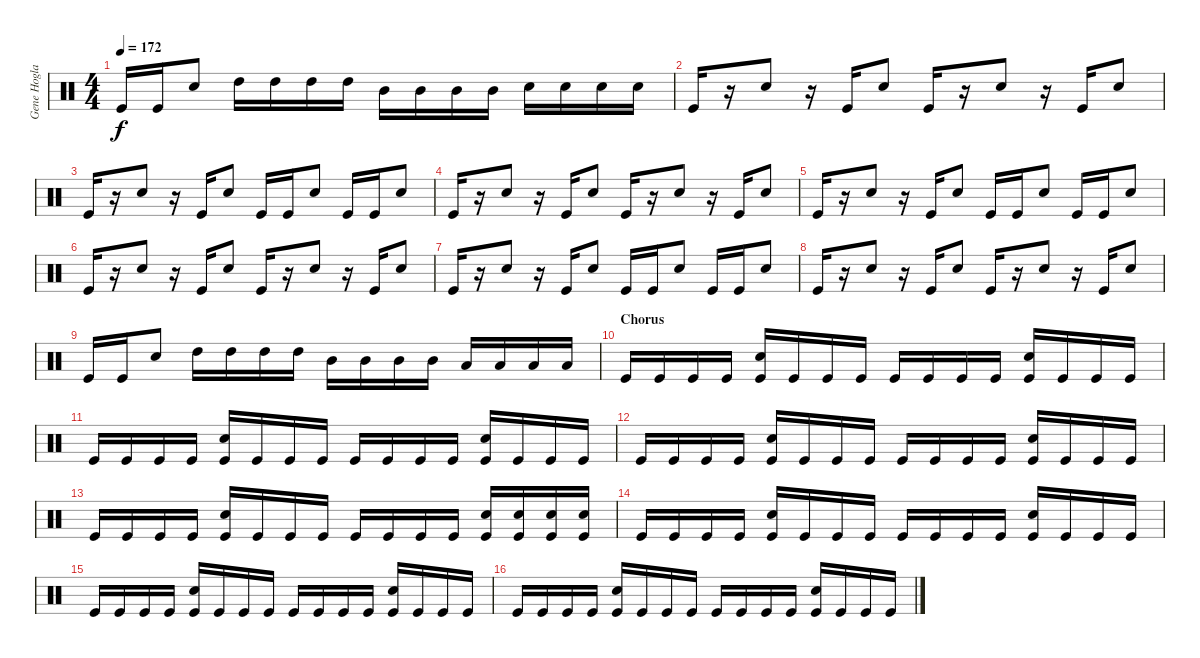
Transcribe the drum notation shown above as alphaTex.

\track ("Gene Hoglan" "Gene Hogla") {instrument percussion}
\staff {score}
\articulation defaults
\ts (4 4)
\tempo 172
\clef neutral
\ks c "Kick (hit)".16{dy f} "Kick (hit)".16 "Snare (hit) 2".8 "High Tom (hit)".16 "High Tom (hit)".16 "High Tom (hit)".16 "High Tom (hit)".16 "Mid Tom (hit)".16 "Mid Tom (hit)".16 "Mid Tom (hit)".16 "Mid Tom (hit)".16 "Snare (hit) 2".16 "Snare (hit) 2".16 "Snare (hit) 2".16 "Snare (hit) 2".16
|
"Kick (hit)".16 r.16 "Snare (hit) 2".8 r.16 "Kick (hit)".16 "Snare (hit) 2".8 "Kick (hit)".16 r.16 "Snare (hit) 2".8 r.16 "Kick (hit)".16 "Snare (hit) 2".8 |
"Kick (hit)".16 r.16 "Snare (hit) 2".8 r.16 "Kick (hit)".16 "Snare (hit) 2".8 "Kick (hit)".16 "Kick (hit)".16 "Snare (hit) 2".8 "Kick (hit)".16 "Kick (hit)".16 "Snare (hit) 2".8 |
"Kick (hit)".16 r.16 "Snare (hit) 2".8 r.16 "Kick (hit)".16 "Snare (hit) 2".8 "Kick (hit)".16 r.16 "Snare (hit) 2".8 r.16 "Kick (hit)".16 "Snare (hit) 2".8 |
"Kick (hit)".16 r.16 "Snare (hit) 2".8 r.16 "Kick (hit)".16 "Snare (hit) 2".8 "Kick (hit)".16 "Kick (hit)".16 "Snare (hit) 2".8 "Kick (hit)".16 "Kick (hit)".16 "Snare (hit) 2".8 |
"Kick (hit)".16 r.16 "Snare (hit) 2".8 r.16 "Kick (hit)".16 "Snare (hit) 2".8 "Kick (hit)".16 r.16 "Snare (hit) 2".8 r.16 "Kick (hit)".16 "Snare (hit) 2".8 |
"Kick (hit)".16 r.16 "Snare (hit) 2".8 r.16 "Kick (hit)".16 "Snare (hit) 2".8 "Kick (hit)".16 "Kick (hit)".16 "Snare (hit) 2".8 "Kick (hit)".16 "Kick (hit)".16 "Snare (hit) 2".8 |
"Kick (hit)".16 r.16 "Snare (hit) 2".8 r.16 "Kick (hit)".16 "Snare (hit) 2".8 "Kick (hit)".16 r.16 "Snare (hit) 2".8 r.16 "Kick (hit)".16 "Snare (hit) 2".8 |
"Kick (hit)".16 "Kick (hit)".16 "Snare (hit) 2".8 "High Tom (hit)".16 "High Tom (hit)".16 "High Tom (hit)".16 "High Tom (hit)".16 "Mid Tom (hit)".16 "Mid Tom (hit)".16 "Mid Tom (hit)".16 "Mid Tom (hit)".16 "Low Floor Tom (hit)".16 "Low Floor Tom (hit)".16 "Low Floor Tom (hit)".16 "Low Floor Tom (hit)".16 |
\section ("" "Chorus")
"Kick (hit)".16 "Kick (hit)".16 "Kick (hit)".16 "Kick (hit)".16 ("Snare (hit) 2" "Kick (hit)").16 "Kick (hit)".16 "Kick (hit)".16 "Kick (hit)".16 "Kick (hit)".16 "Kick (hit)".16 "Kick (hit)".16 "Kick (hit)".16 ("Snare (hit) 2" "Kick (hit)").16 "Kick (hit)".16 "Kick (hit)".16 "Kick (hit)".16 |
"Kick (hit)".16 "Kick (hit)".16 "Kick (hit)".16 "Kick (hit)".16 ("Snare (hit) 2" "Kick (hit)").16 "Kick (hit)".16 "Kick (hit)".16 "Kick (hit)".16 "Kick (hit)".16 "Kick (hit)".16 "Kick (hit)".16 "Kick (hit)".16 ("Snare (hit) 2" "Kick (hit)").16 "Kick (hit)".16 "Kick (hit)".16 "Kick (hit)".16 |
"Kick (hit)".16 "Kick (hit)".16 "Kick (hit)".16 "Kick (hit)".16 ("Snare (hit) 2" "Kick (hit)").16 "Kick (hit)".16 "Kick (hit)".16 "Kick (hit)".16 "Kick (hit)".16 "Kick (hit)".16 "Kick (hit)".16 "Kick (hit)".16 ("Snare (hit) 2" "Kick (hit)").16 "Kick (hit)".16 "Kick (hit)".16 "Kick (hit)".16 |
"Kick (hit)".16 "Kick (hit)".16 "Kick (hit)".16 "Kick (hit)".16 ("Snare (hit) 2" "Kick (hit)").16 "Kick (hit)".16 "Kick (hit)".16 "Kick (hit)".16 "Kick (hit)".16 "Kick (hit)".16 "Kick (hit)".16 "Kick (hit)".16 ("Snare (hit) 2" "Kick (hit)").16 ("Snare (hit) 2" "Kick (hit)").16 ("Snare (hit) 2" "Kick (hit)").16 ("Snare (hit) 2" "Kick (hit)").16 |
"Kick (hit)".16 "Kick (hit)".16 "Kick (hit)".16 "Kick (hit)".16 ("Snare (hit) 2" "Kick (hit)").16 "Kick (hit)".16 "Kick (hit)".16 "Kick (hit)".16 "Kick (hit)".16 "Kick (hit)".16 "Kick (hit)".16 "Kick (hit)".16 ("Snare (hit) 2" "Kick (hit)").16 "Kick (hit)".16 "Kick (hit)".16 "Kick (hit)".16 |
"Kick (hit)".16 "Kick (hit)".16 "Kick (hit)".16 "Kick (hit)".16 ("Snare (hit) 2" "Kick (hit)").16 "Kick (hit)".16 "Kick (hit)".16 "Kick (hit)".16 "Kick (hit)".16 "Kick (hit)".16 "Kick (hit)".16 "Kick (hit)".16 ("Snare (hit) 2" "Kick (hit)").16 "Kick (hit)".16 "Kick (hit)".16 "Kick (hit)".16 |
"Kick (hit)".16 "Kick (hit)".16 "Kick (hit)".16 "Kick (hit)".16 ("Snare (hit) 2" "Kick (hit)").16 "Kick (hit)".16 "Kick (hit)".16 "Kick (hit)".16 "Kick (hit)".16 "Kick (hit)".16 "Kick (hit)".16 "Kick (hit)".16 ("Snare (hit) 2" "Kick (hit)").16 "Kick (hit)".16 "Kick (hit)".16 "Kick (hit)".16
